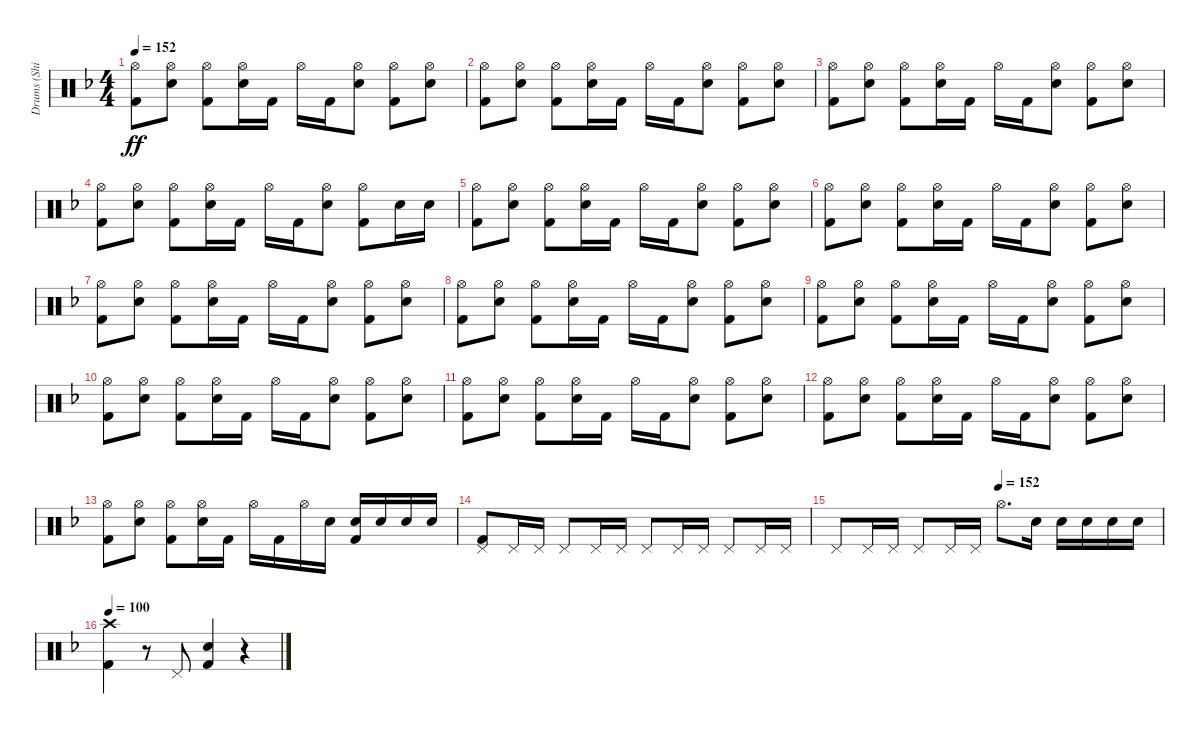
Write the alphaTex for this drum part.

\track ("Drums (Shinya ! Shinya !)" "Drums (Shi") {instrument percussion}
\staff {score}
\articulation defaults
\ts (4 4)
\tempo 152
\clef neutral
\ks f
("Kick (hit) 2" "Hi-Hat (open)").8{dy ff} ("Electric Snare (hit)" "Hi-Hat (open)").8 ("Kick (hit) 2" "Hi-Hat (open)").8 ("Electric Snare (hit)" "Hi-Hat (open)").16 "Kick (hit) 2".16 "Hi-Hat (open)".16 "Kick (hit) 2".16 ("Electric Snare (hit)" "Hi-Hat (open)").8 ("Kick (hit) 2" "Hi-Hat (open)").8 ("Electric Snare (hit)" "Hi-Hat (open)").8 |
("Kick (hit) 2" "Hi-Hat (open)").8 ("Electric Snare (hit)" "Hi-Hat (open)").8 ("Kick (hit) 2" "Hi-Hat (open)").8 ("Electric Snare (hit)" "Hi-Hat (open)").16 "Kick (hit) 2".16 "Hi-Hat (open)".16 "Kick (hit) 2".16 ("Electric Snare (hit)" "Hi-Hat (open)").8 ("Kick (hit) 2" "Hi-Hat (open)").8 ("Electric Snare (hit)" "Hi-Hat (open)").8 |
("Kick (hit) 2" "Hi-Hat (open)").8 ("Electric Snare (hit)" "Hi-Hat (open)").8 ("Kick (hit) 2" "Hi-Hat (open)").8 ("Electric Snare (hit)" "Hi-Hat (open)").16 "Kick (hit) 2".16 "Hi-Hat (open)".16 "Kick (hit) 2".16 ("Electric Snare (hit)" "Hi-Hat (open)").8 ("Kick (hit) 2" "Hi-Hat (open)").8 ("Electric Snare (hit)" "Hi-Hat (open)").8 |
("Kick (hit) 2" "Hi-Hat (open)").8 ("Electric Snare (hit)" "Hi-Hat (open)").8 ("Kick (hit) 2" "Hi-Hat (open)").8 ("Electric Snare (hit)" "Hi-Hat (open)").16 "Kick (hit) 2".16 "Hi-Hat (open)".16 "Kick (hit) 2".16 ("Electric Snare (hit)" "Hi-Hat (open)").8 ("Kick (hit) 2" "Hi-Hat (open)").8 "Electric Snare (hit)".16 "Electric Snare (hit)".16 |
("Kick (hit) 2" "Hi-Hat (open)").8 ("Electric Snare (hit)" "Hi-Hat (open)").8 ("Kick (hit) 2" "Hi-Hat (open)").8 ("Electric Snare (hit)" "Hi-Hat (open)").16 "Kick (hit) 2".16 "Hi-Hat (open)".16 "Kick (hit) 2".16 ("Electric Snare (hit)" "Hi-Hat (open)").8 ("Kick (hit) 2" "Hi-Hat (open)").8 ("Electric Snare (hit)" "Hi-Hat (open)").8 |
("Kick (hit) 2" "Hi-Hat (open)").8 ("Electric Snare (hit)" "Hi-Hat (open)").8 ("Kick (hit) 2" "Hi-Hat (open)").8 ("Electric Snare (hit)" "Hi-Hat (open)").16 "Kick (hit) 2".16 "Hi-Hat (open)".16 "Kick (hit) 2".16 ("Electric Snare (hit)" "Hi-Hat (open)").8 ("Kick (hit) 2" "Hi-Hat (open)").8 ("Electric Snare (hit)" "Hi-Hat (open)").8 |
("Kick (hit) 2" "Hi-Hat (open)").8 ("Electric Snare (hit)" "Hi-Hat (open)").8 ("Kick (hit) 2" "Hi-Hat (open)").8 ("Electric Snare (hit)" "Hi-Hat (open)").16 "Kick (hit) 2".16 "Hi-Hat (open)".16 "Kick (hit) 2".16 ("Electric Snare (hit)" "Hi-Hat (open)").8 ("Kick (hit) 2" "Hi-Hat (open)").8 ("Electric Snare (hit)" "Hi-Hat (open)").8 |
("Kick (hit) 2" "Hi-Hat (open)").8 ("Electric Snare (hit)" "Hi-Hat (open)").8 ("Kick (hit) 2" "Hi-Hat (open)").8 ("Electric Snare (hit)" "Hi-Hat (open)").16 "Kick (hit) 2".16 "Hi-Hat (open)".16 "Kick (hit) 2".16 ("Electric Snare (hit)" "Hi-Hat (open)").8 ("Kick (hit) 2" "Hi-Hat (open)").8 ("Electric Snare (hit)" "Hi-Hat (open)").8 |
("Kick (hit) 2" "Hi-Hat (open)").8 ("Electric Snare (hit)" "Hi-Hat (open)").8 ("Kick (hit) 2" "Hi-Hat (open)").8 ("Electric Snare (hit)" "Hi-Hat (open)").16 "Kick (hit) 2".16 "Hi-Hat (open)".16 "Kick (hit) 2".16 ("Electric Snare (hit)" "Hi-Hat (open)").8 ("Kick (hit) 2" "Hi-Hat (open)").8 ("Electric Snare (hit)" "Hi-Hat (open)").8 |
("Kick (hit) 2" "Hi-Hat (open)").8 ("Electric Snare (hit)" "Hi-Hat (open)").8 ("Kick (hit) 2" "Hi-Hat (open)").8 ("Electric Snare (hit)" "Hi-Hat (open)").16 "Kick (hit) 2".16 "Hi-Hat (open)".16 "Kick (hit) 2".16 ("Electric Snare (hit)" "Hi-Hat (open)").8 ("Kick (hit) 2" "Hi-Hat (open)").8 ("Electric Snare (hit)" "Hi-Hat (open)").8 |
("Kick (hit) 2" "Hi-Hat (open)").8 ("Electric Snare (hit)" "Hi-Hat (open)").8 ("Kick (hit) 2" "Hi-Hat (open)").8 ("Electric Snare (hit)" "Hi-Hat (open)").16 "Kick (hit) 2".16 "Hi-Hat (open)".16 "Kick (hit) 2".16 ("Electric Snare (hit)" "Hi-Hat (open)").8 ("Kick (hit) 2" "Hi-Hat (open)").8 ("Electric Snare (hit)" "Hi-Hat (open)").8 |
("Kick (hit) 2" "Hi-Hat (open)").8 ("Electric Snare (hit)" "Hi-Hat (open)").8 ("Kick (hit) 2" "Hi-Hat (open)").8 ("Electric Snare (hit)" "Hi-Hat (open)").16 "Kick (hit) 2".16 "Hi-Hat (open)".16 "Kick (hit) 2".16 ("Electric Snare (hit)" "Hi-Hat (open)").8 ("Kick (hit) 2" "Hi-Hat (open)").8 ("Electric Snare (hit)" "Hi-Hat (open)").8 |
("Kick (hit) 2" "Hi-Hat (open)").8 ("Electric Snare (hit)" "Hi-Hat (open)").8 ("Kick (hit) 2" "Hi-Hat (open)").8 ("Electric Snare (hit)" "Hi-Hat (open)").16 "Kick (hit) 2".16 "Hi-Hat (open)".16 "Kick (hit) 2".16 "Hi-Hat (open)".16 "Electric Snare (hit)".16 ("Kick (hit) 2" "Electric Snare (hit)").16 "Electric Snare (hit)".16 "Electric Snare (hit)".16 "Electric Snare (hit)".16 |
("Kick (hit) 2" "Pedal Hi-Hat (hit)").8 "Pedal Hi-Hat (hit)".16 "Pedal Hi-Hat (hit)".16 "Pedal Hi-Hat (hit)".8 "Pedal Hi-Hat (hit)".16 "Pedal Hi-Hat (hit)".16 "Pedal Hi-Hat (hit)".8 "Pedal Hi-Hat (hit)".16 "Pedal Hi-Hat (hit)".16 "Pedal Hi-Hat (hit)".8 "Pedal Hi-Hat (hit)".16 "Pedal Hi-Hat (hit)".16 |
\tempo (152 0.5)
"Pedal Hi-Hat (hit)".8 "Pedal Hi-Hat (hit)".16 "Pedal Hi-Hat (hit)".16 "Pedal Hi-Hat (hit)".8 "Pedal Hi-Hat (hit)".16 "Pedal Hi-Hat (hit)".16 "Hi-Hat (open)".8{d} "Electric Snare (hit)".16 "Electric Snare (hit)".16 "Electric Snare (hit)".16 "Electric Snare (hit)".16 "Electric Snare (hit)".16 |
\tempo 100
("Kick (hit) 2" "Crash high (hit)").4 r.8 "Pedal Hi-Hat (hit)".8 ("Kick (hit) 2" "Electric Snare (hit)").4 r.4
